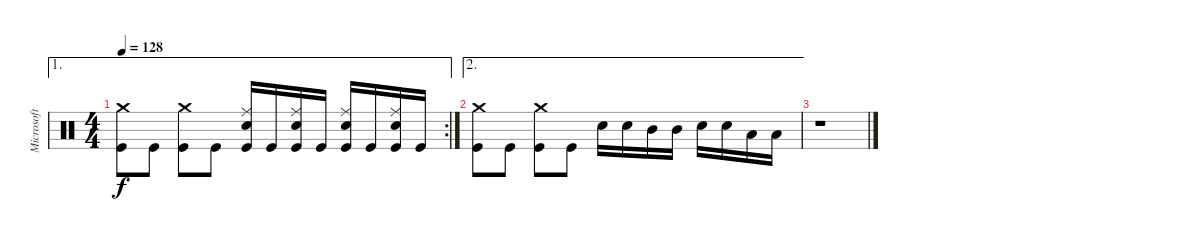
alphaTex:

\track ("Microsoft S.A.M." "Microsoft ") {instrument percussion}
\staff {score}
\articulation defaults
\ae 1
\rc 2
\ts (4 4)
\tempo 128
\clef neutral
\ks c
("Kick (hit)" "Crash medium (hit)").8{dy f} "Kick (hit)".8 ("Kick (hit)" "Crash medium (hit)").8 "Kick (hit)".8 ("Kick (hit)" "Ride (middle)" "Snare (hit) 2").16 "Kick (hit)".16 ("Kick (hit)" "Ride (middle)" "Snare (hit) 2").16 "Kick (hit)".16 ("Kick (hit)" "Ride (middle)" "Snare (hit) 2").16 "Kick (hit)".16 ("Kick (hit)" "Ride (middle)" "Snare (hit) 2").16 "Kick (hit)".16 |
\ae 2
("Kick (hit)" "Crash medium (hit)").8 "Kick (hit)".8 ("Kick (hit)" "Crash medium (hit)").8 "Kick (hit)".8 "Snare (hit) 2".16 "Snare (hit) 2".16 "Mid Tom (hit)".16 "Mid Tom (hit)".16 "Snare (hit) 2".16 "Snare (hit) 2".16 "Low Tom (hit)".16 "Low Tom (hit)".16 |
r.1
